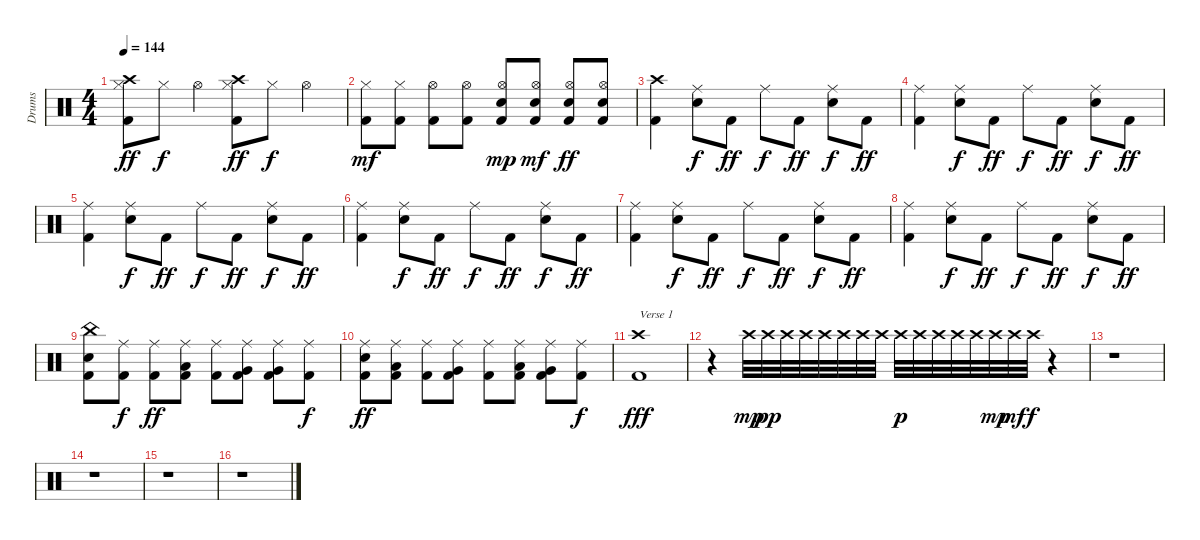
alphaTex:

\track ("Drums" "Drums") {instrument percussion}
\staff {score}
\articulation defaults
\ts (4 4)
\tempo 144
\clef neutral
\ks c
("Crash high (hit)" "Hi-Hat (closed)" "Kick (hit) 2").8{dy ff} "Hi-Hat (closed)".8{dy f} "Hi-Hat (open)".4 ("Crash high (hit)" "Hi-Hat (closed)" "Kick (hit) 2").8{dy ff} "Hi-Hat (closed)".8{dy f} "Hi-Hat (open)".4 |
("Hi-Hat (closed)" "Kick (hit) 2").8{dy mf} ("Hi-Hat (closed)" "Kick (hit) 2").8 ("Hi-Hat (open)" "Kick (hit) 2").8 ("Hi-Hat (open)" "Kick (hit) 2").8 ("Hi-Hat (open)" "Snare (hit) 2" "Kick (hit) 2").8{dy mp} ("Hi-Hat (open)" "Snare (hit) 2" "Kick (hit) 2").8{dy mf} ("Hi-Hat (open)" "Snare (hit) 2" "Kick (hit) 2").8{dy ff} ("Hi-Hat (open)" "Snare (hit) 2" "Kick (hit) 2").8 |
("Crash high (hit)" "Kick (hit) 2").4 ("Ride (middle)" "Snare (hit) 2").8{dy f} "Kick (hit) 2".8{dy ff} "Ride (middle)".8{dy f} "Kick (hit) 2".8{dy ff} ("Ride (middle)" "Snare (hit) 2").8{dy f} "Kick (hit) 2".8{dy ff} |
("Ride (middle)" "Kick (hit) 2").4 ("Ride (middle)" "Snare (hit) 2").8{dy f} "Kick (hit) 2".8{dy ff} "Ride (middle)".8{dy f} "Kick (hit) 2".8{dy ff} ("Ride (middle)" "Snare (hit) 2").8{dy f} "Kick (hit) 2".8{dy ff} |
("Ride (middle)" "Kick (hit) 2").4 ("Ride (middle)" "Snare (hit) 2").8{dy f} "Kick (hit) 2".8{dy ff} "Ride (middle)".8{dy f} "Kick (hit) 2".8{dy ff} ("Ride (middle)" "Snare (hit) 2").8{dy f} "Kick (hit) 2".8{dy ff} |
("Ride (middle)" "Kick (hit) 2").4 ("Ride (middle)" "Snare (hit) 2").8{dy f} "Kick (hit) 2".8{dy ff} "Ride (middle)".8{dy f} "Kick (hit) 2".8{dy ff} ("Ride (middle)" "Snare (hit) 2").8{dy f} "Kick (hit) 2".8{dy ff} |
("Ride (middle)" "Kick (hit) 2").4 ("Ride (middle)" "Snare (hit) 2").8{dy f} "Kick (hit) 2".8{dy ff} "Ride (middle)".8{dy f} "Kick (hit) 2".8{dy ff} ("Ride (middle)" "Snare (hit) 2").8{dy f} "Kick (hit) 2".8{dy ff} |
("Ride (middle)" "Kick (hit) 2").4 ("Ride (middle)" "Snare (hit) 2").8{dy f} "Kick (hit) 2".8{dy ff} "Ride (middle)".8{dy f} "Kick (hit) 2".8{dy ff} ("Ride (middle)" "Snare (hit) 2").8{dy f} "Kick (hit) 2".8{dy ff} |
("China (hit)" "Snare (hit) 2" "Kick (hit) 2").8 ("Ride (middle)" "Kick (hit) 2").8{dy f} ("Ride (middle)" "Kick (hit) 2").8{dy ff} ("Ride (middle)" "Low Tom (hit)" "Kick (hit) 2").8 ("Ride (middle)" "Kick (hit) 2").8 ("Ride (middle)" "Very Low Tom (hit)" "Kick (hit) 2").8 ("Ride (middle)" "Very Low Tom (hit)" "Kick (hit) 2").8 ("Ride (middle)" "Kick (hit) 2").8{dy f} |
("Ride (middle)" "Snare (hit) 2" "Kick (hit) 2").8{dy ff} ("Ride (middle)" "Low Tom (hit)" "Kick (hit) 2").8 ("Ride (middle)" "Kick (hit) 2").8 ("Ride (middle)" "Very Low Tom (hit)" "Kick (hit) 2").8 ("Ride (middle)" "Kick (hit) 2").8 ("Ride (middle)" "Low Floor Tom (hit)" "Kick (hit) 2").8 ("Ride (middle)" "Very Low Tom (hit)" "Kick (hit) 2").8 ("Ride (middle)" "Kick (hit) 2").8{dy f} |
("Crash high (hit)" "Kick (hit) 2").1{txt "Verse 1" dy fff} |
r.4 "Crash high (hit)".32{dy mp} "Crash high (hit)".32{dy pp} "Crash high (hit)".32 "Crash high (hit)".32 "Crash high (hit)".32 "Crash high (hit)".32 "Crash high (hit)".32 "Crash high (hit)".32 "Crash high (hit)".32{dy p} "Crash high (hit)".32 "Crash high (hit)".32 "Crash high (hit)".32 "Crash high (hit)".32 "Crash high (hit)".32{dy mp} "Crash high (hit)".32{dy mf} "Crash high (hit)".32{dy f} r.4 |
r.1 |
r.1 |
r.1 |
r.1
